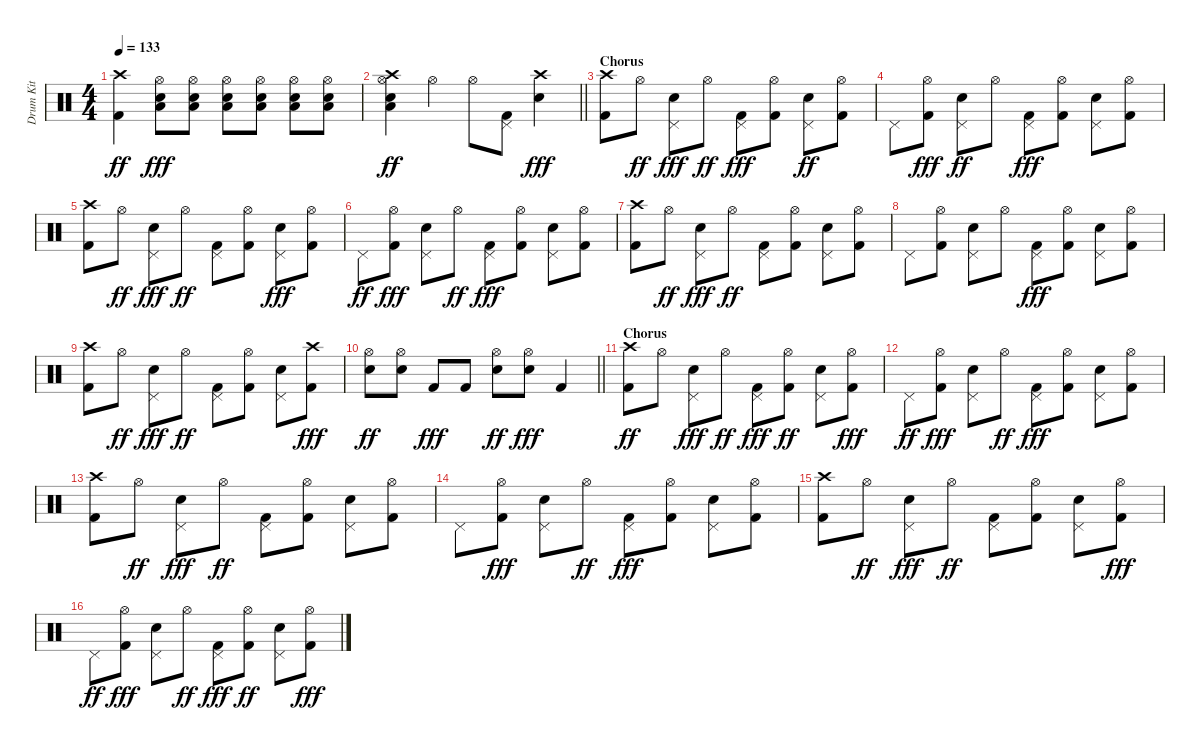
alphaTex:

\track ("Drum Kit" "Drum Kit") {instrument percussion}
\staff {score}
\articulation defaults
\ts (4 4)
\tempo 133
\clef neutral
\ks c
("Kick (hit) 2" "Crash high (hit)").4{dy ff} ("Hi-Hat (open)" "Electric Snare (hit)" "Low Floor Tom (hit)").8{dy fff} ("Hi-Hat (open)" "Low Floor Tom (hit)" "Electric Snare (hit)").8 ("Hi-Hat (open)" "Electric Snare (hit)" "Low Floor Tom (hit)").8 ("Hi-Hat (open)" "Low Floor Tom (hit)" "Electric Snare (hit)").8 ("Hi-Hat (open)" "Electric Snare (hit)" "Low Floor Tom (hit)").8 ("Hi-Hat (open)" "Electric Snare (hit)" "Low Floor Tom (hit)").8 |
\barLineRight lightlight
("Crash high (hit)" "Electric Snare (hit)" "Low Floor Tom (hit)" "Hi-Hat (open)").4{dy ff} "Hi-Hat (open)".4 "Hi-Hat (open)".8 ("Kick (hit) 2" "Pedal Hi-Hat (hit)").8 ("Crash high (hit)" "Electric Snare (hit)").4{dy fff} |
\section ("" "Chorus")
("Crash high (hit)" "Kick (hit) 2").8 "Hi-Hat (open)".8{dy ff} ("Pedal Hi-Hat (hit)" "Electric Snare (hit)").8{dy fff} "Hi-Hat (open)".8{dy ff} ("Pedal Hi-Hat (hit)" "Kick (hit) 2").8{dy fff} ("Hi-Hat (open)" "Kick (hit) 2").8 ("Electric Snare (hit)" "Pedal Hi-Hat (hit)").8{dy ff} ("Kick (hit) 2" "Hi-Hat (open)").8 |
"Pedal Hi-Hat (hit)".8 ("Hi-Hat (open)" "Kick (hit) 2").8{dy fff} ("Electric Snare (hit)" "Pedal Hi-Hat (hit)").8{dy ff} "Hi-Hat (open)".8 ("Pedal Hi-Hat (hit)" "Kick (hit) 2").8{dy fff} ("Hi-Hat (open)" "Kick (hit) 2").8 ("Pedal Hi-Hat (hit)" "Electric Snare (hit)").8 ("Hi-Hat (open)" "Kick (hit) 2").8 |
("Crash high (hit)" "Kick (hit) 2").8 "Hi-Hat (open)".8{dy ff} ("Pedal Hi-Hat (hit)" "Electric Snare (hit)").8{dy fff} "Hi-Hat (open)".8{dy ff} ("Kick (hit) 2" "Pedal Hi-Hat (hit)").8 ("Kick (hit) 2" "Hi-Hat (open)").8 ("Pedal Hi-Hat (hit)" "Electric Snare (hit)").8{dy fff} ("Hi-Hat (open)" "Kick (hit) 2").8 |
"Pedal Hi-Hat (hit)".8{dy ff} ("Hi-Hat (open)" "Kick (hit) 2").8{dy fff} ("Pedal Hi-Hat (hit)" "Electric Snare (hit)").8 "Hi-Hat (open)".8{dy ff} ("Pedal Hi-Hat (hit)" "Kick (hit) 2").8{dy fff} ("Hi-Hat (open)" "Kick (hit) 2").8 ("Pedal Hi-Hat (hit)" "Electric Snare (hit)").8 ("Hi-Hat (open)" "Kick (hit) 2").8 |
("Crash high (hit)" "Kick (hit) 2").8 "Hi-Hat (open)".8{dy ff} ("Pedal Hi-Hat (hit)" "Electric Snare (hit)").8{dy fff} "Hi-Hat (open)".8{dy ff} ("Kick (hit) 2" "Pedal Hi-Hat (hit)").8 ("Kick (hit) 2" "Hi-Hat (open)").8 ("Electric Snare (hit)" "Pedal Hi-Hat (hit)").8 ("Kick (hit) 2" "Hi-Hat (open)").8 |
"Pedal Hi-Hat (hit)".8 ("Kick (hit) 2" "Hi-Hat (open)").8 ("Electric Snare (hit)" "Pedal Hi-Hat (hit)").8 "Hi-Hat (open)".8 ("Pedal Hi-Hat (hit)" "Kick (hit) 2").8{dy fff} ("Hi-Hat (open)" "Kick (hit) 2").8 ("Pedal Hi-Hat (hit)" "Electric Snare (hit)").8 ("Hi-Hat (open)" "Kick (hit) 2").8 |
("Crash high (hit)" "Kick (hit) 2").8 "Hi-Hat (open)".8{dy ff} ("Pedal Hi-Hat (hit)" "Electric Snare (hit)").8{dy fff} "Hi-Hat (open)".8{dy ff} ("Kick (hit) 2" "Pedal Hi-Hat (hit)").8 ("Kick (hit) 2" "Hi-Hat (open)").8 ("Electric Snare (hit)" "Pedal Hi-Hat (hit)").8 ("Crash high (hit)" "Kick (hit) 2").8{dy fff} |
\barLineRight lightlight
("Electric Snare (hit)" "Hi-Hat (open)").8{dy ff} ("Electric Snare (hit)" "Hi-Hat (open)").8 "Kick (hit) 2".8{dy fff} "Kick (hit) 2".8 ("Electric Snare (hit)" "Hi-Hat (open)").8{dy ff} ("Hi-Hat (open)" "Electric Snare (hit)").8{dy fff} "Kick (hit) 2".4 |
\section ("" "Chorus")
("Kick (hit) 2" "Crash high (hit)").8{dy ff} "Hi-Hat (open)".8 ("Pedal Hi-Hat (hit)" "Electric Snare (hit)").8{dy fff} "Hi-Hat (open)".8{dy ff} ("Pedal Hi-Hat (hit)" "Kick (hit) 2").8{dy fff} ("Kick (hit) 2" "Hi-Hat (open)").8{dy ff} ("Electric Snare (hit)" "Pedal Hi-Hat (hit)").8 ("Hi-Hat (open)" "Kick (hit) 2").8{dy fff} |
"Pedal Hi-Hat (hit)".8{dy ff} ("Hi-Hat (open)" "Kick (hit) 2").8{dy fff} ("Pedal Hi-Hat (hit)" "Electric Snare (hit)").8 "Hi-Hat (open)".8{dy ff} ("Pedal Hi-Hat (hit)" "Kick (hit) 2").8{dy fff} ("Hi-Hat (open)" "Kick (hit) 2").8 ("Pedal Hi-Hat (hit)" "Electric Snare (hit)").8 ("Hi-Hat (open)" "Kick (hit) 2").8 |
("Crash high (hit)" "Kick (hit) 2").8 "Hi-Hat (open)".8{dy ff} ("Pedal Hi-Hat (hit)" "Electric Snare (hit)").8{dy fff} "Hi-Hat (open)".8{dy ff} ("Kick (hit) 2" "Pedal Hi-Hat (hit)").8 ("Kick (hit) 2" "Hi-Hat (open)").8 ("Electric Snare (hit)" "Pedal Hi-Hat (hit)").8 ("Kick (hit) 2" "Hi-Hat (open)").8 |
"Pedal Hi-Hat (hit)".8 ("Hi-Hat (open)" "Kick (hit) 2").8{dy fff} ("Pedal Hi-Hat (hit)" "Electric Snare (hit)").8 "Hi-Hat (open)".8{dy ff} ("Pedal Hi-Hat (hit)" "Kick (hit) 2").8{dy fff} ("Hi-Hat (open)" "Kick (hit) 2").8 ("Pedal Hi-Hat (hit)" "Electric Snare (hit)").8 ("Hi-Hat (open)" "Kick (hit) 2").8 |
("Crash high (hit)" "Kick (hit) 2").8 "Hi-Hat (open)".8{dy ff} ("Pedal Hi-Hat (hit)" "Electric Snare (hit)").8{dy fff} "Hi-Hat (open)".8{dy ff} ("Kick (hit) 2" "Pedal Hi-Hat (hit)").8 ("Kick (hit) 2" "Hi-Hat (open)").8 ("Electric Snare (hit)" "Pedal Hi-Hat (hit)").8 ("Hi-Hat (open)" "Kick (hit) 2").8{dy fff} |
"Pedal Hi-Hat (hit)".8{dy ff} ("Hi-Hat (open)" "Kick (hit) 2").8{dy fff} ("Pedal Hi-Hat (hit)" "Electric Snare (hit)").8 "Hi-Hat (open)".8{dy ff} ("Pedal Hi-Hat (hit)" "Kick (hit) 2").8{dy fff} ("Kick (hit) 2" "Hi-Hat (open)").8{dy ff} ("Electric Snare (hit)" "Pedal Hi-Hat (hit)").8 ("Hi-Hat (open)" "Kick (hit) 2").8{dy fff}
